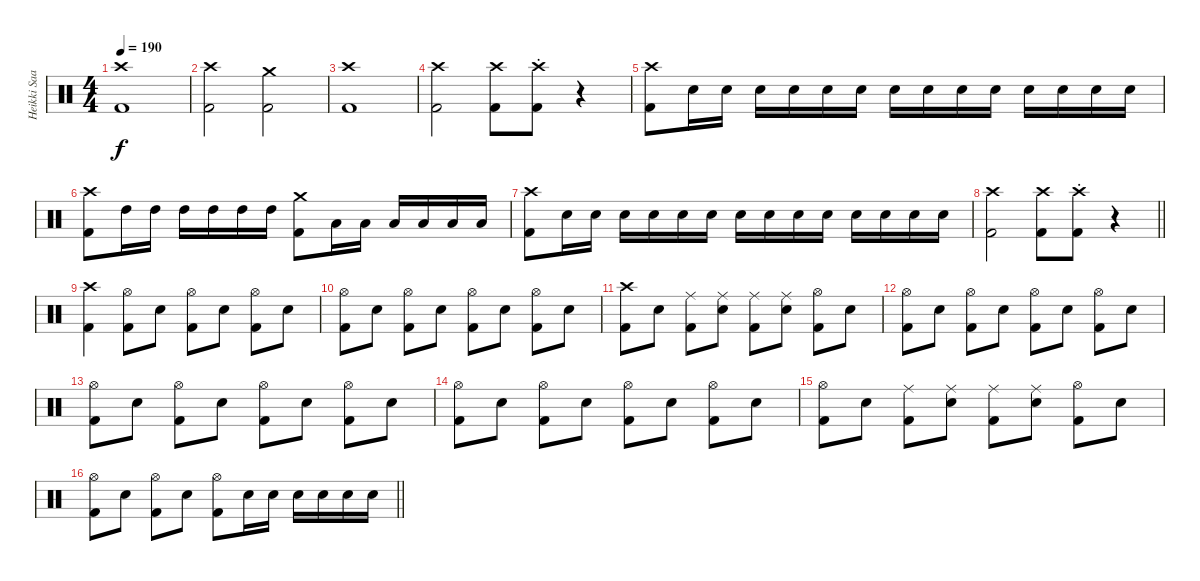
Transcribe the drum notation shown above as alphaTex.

\track ("Heikki Saari" "Heikki Saa") {instrument percussion}
\staff {score}
\articulation defaults
\ts (4 4)
\tempo 190
\clef neutral
\ks c
("Crash high (hit)" "Kick (hit) 2").1{dy f} |
("Crash high (hit)" "Kick (hit) 2").2 ("Crash medium (hit)" "Kick (hit) 2").2 |
("Crash high (hit)" "Kick (hit) 2").1 |
("Crash high (hit)" "Kick (hit) 2").2 ("Crash high (hit)" "Kick (hit) 2").8 ("Crash high (hit)" "Kick (hit) 2"{st}).8 r.4 |
("Crash high (hit)" "Kick (hit) 2").8 "Snare (hit) 2".16 "Snare (hit) 2".16 "Snare (hit) 2".16 "Snare (hit) 2".16 "Snare (hit) 2".16 "Snare (hit) 2".16 "Snare (hit) 2".16 "Snare (hit) 2".16 "Snare (hit) 2".16 "Snare (hit) 2".16 "Snare (hit) 2".16 "Snare (hit) 2".16 "Snare (hit) 2".16 "Snare (hit) 2".16 |
("Crash high (hit)" "Kick (hit) 2").8 "High Tom (hit)".16 "High Tom (hit)".16 "High Tom (hit)".16 "High Tom (hit)".16 "High Tom (hit)".16 "High Tom (hit)".16 ("Crash medium (hit)" "Kick (hit) 2").8 "Low Floor Tom (hit)".16 "Low Floor Tom (hit)".16 "Low Floor Tom (hit)".16 "Low Floor Tom (hit)".16 "Low Floor Tom (hit)".16 "Low Floor Tom (hit)".16 |
("Crash high (hit)" "Kick (hit) 2").8 "Snare (hit) 2".16 "Snare (hit) 2".16 "Snare (hit) 2".16 "Snare (hit) 2".16 "Snare (hit) 2".16 "Snare (hit) 2".16 "Snare (hit) 2".16 "Snare (hit) 2".16 "Snare (hit) 2".16 "Snare (hit) 2".16 "Snare (hit) 2".16 "Snare (hit) 2".16 "Snare (hit) 2".16 "Snare (hit) 2".16 |
\barLineRight lightlight
("Crash high (hit)" "Kick (hit) 2").2 ("Crash high (hit)" "Kick (hit) 2").8 ("Crash high (hit)" "Kick (hit) 2"{st}).8 r.4 |
("Crash high (hit)" "Kick (hit) 2").4 ("Hi-Hat (open)" "Kick (hit) 2").8 "Snare (hit) 2".8 ("Hi-Hat (open)" "Kick (hit) 2").8 "Snare (hit) 2".8 ("Hi-Hat (open)" "Kick (hit) 2").8 "Snare (hit) 2".8 |
("Hi-Hat (open)" "Kick (hit) 2").8 "Snare (hit) 2".8 ("Hi-Hat (open)" "Kick (hit) 2").8 "Snare (hit) 2".8 ("Hi-Hat (open)" "Kick (hit) 2").8 "Snare (hit) 2".8 ("Hi-Hat (open)" "Kick (hit) 2").8 "Snare (hit) 2".8 |
("Crash high (hit)" "Kick (hit) 2").8 "Snare (hit) 2".8 ("Ride (middle)" "Kick (hit) 2").8 ("Ride (middle)" "Snare (hit) 2").8 ("Ride (middle)" "Kick (hit) 2").8 ("Ride (middle)" "Snare (hit) 2").8 ("Hi-Hat (open)" "Kick (hit) 2").8 "Snare (hit) 2".8 |
("Hi-Hat (open)" "Kick (hit) 2").8 "Snare (hit) 2".8 ("Hi-Hat (open)" "Kick (hit) 2").8 "Snare (hit) 2".8 ("Hi-Hat (open)" "Kick (hit) 2").8 "Snare (hit) 2".8 ("Hi-Hat (open)" "Kick (hit) 2").8 "Snare (hit) 2".8 |
("Hi-Hat (open)" "Kick (hit) 2").8 "Snare (hit) 2".8 ("Hi-Hat (open)" "Kick (hit) 2").8 "Snare (hit) 2".8 ("Hi-Hat (open)" "Kick (hit) 2").8 "Snare (hit) 2".8 ("Hi-Hat (open)" "Kick (hit) 2").8 "Snare (hit) 2".8 |
("Hi-Hat (open)" "Kick (hit) 2").8 "Snare (hit) 2".8 ("Hi-Hat (open)" "Kick (hit) 2").8 "Snare (hit) 2".8 ("Hi-Hat (open)" "Kick (hit) 2").8 "Snare (hit) 2".8 ("Hi-Hat (open)" "Kick (hit) 2").8 "Snare (hit) 2".8 |
("Hi-Hat (open)" "Kick (hit) 2").8 "Snare (hit) 2".8 ("Ride (middle)" "Kick (hit) 2").8 ("Ride (middle)" "Snare (hit) 2").8 ("Ride (middle)" "Kick (hit) 2").8 ("Ride (middle)" "Snare (hit) 2").8 ("Hi-Hat (open)" "Kick (hit) 2").8 "Snare (hit) 2".8 |
\barLineRight lightlight
("Hi-Hat (open)" "Kick (hit) 2").8 "Snare (hit) 2".8 ("Hi-Hat (open)" "Kick (hit) 2").8 "Snare (hit) 2".8 ("Hi-Hat (open)" "Kick (hit) 2").8 "Snare (hit) 2".16 "Snare (hit) 2".16 "Snare (hit) 2".16 "Snare (hit) 2".16 "Snare (hit) 2".16 "Snare (hit) 2".16
